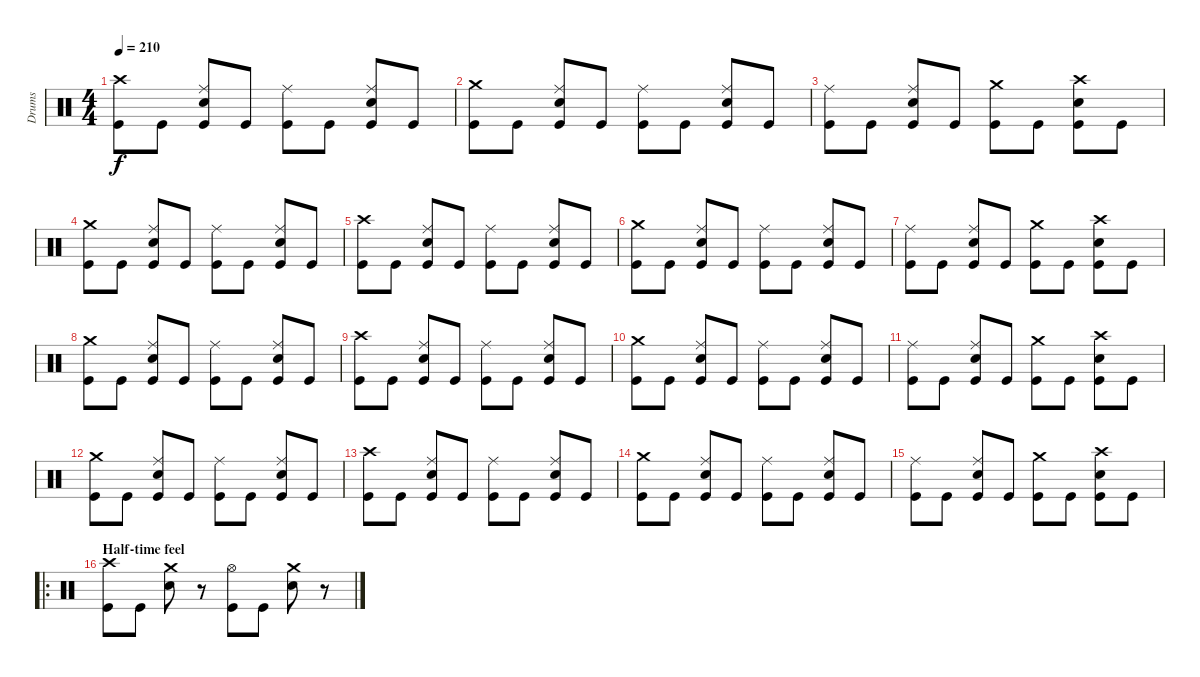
\track ("Drums" "Drums") {instrument percussion}
\staff {score}
\articulation defaults
\ts (4 4)
\tempo 210
\clef neutral
\ks c
("Crash high (hit)" "Kick (hit)").8{dy f} "Kick (hit)".8 ("Ride (middle)" "Electric Snare (hit)" "Kick (hit)").8 "Kick (hit)".8 ("Ride (middle)" "Kick (hit)").8 "Kick (hit)".8 ("Ride (middle)" "Electric Snare (hit)" "Kick (hit)").8 "Kick (hit)".8 |
("Crash medium (hit)" "Kick (hit)").8 "Kick (hit)".8 ("Ride (middle)" "Electric Snare (hit)" "Kick (hit)").8 "Kick (hit)".8 ("Ride (middle)" "Kick (hit)").8 "Kick (hit)".8 ("Ride (middle)" "Electric Snare (hit)" "Kick (hit)").8 "Kick (hit)".8 |
("Ride (middle)" "Kick (hit)").8 "Kick (hit)".8 ("Ride (middle)" "Electric Snare (hit)" "Kick (hit)").8 "Kick (hit)".8 ("Crash medium (hit)" "Kick (hit)").8 "Kick (hit)".8 ("Crash high (hit)" "Electric Snare (hit)" "Kick (hit)").8 "Kick (hit)".8 |
("Crash medium (hit)" "Kick (hit)").8 "Kick (hit)".8 ("Ride (middle)" "Electric Snare (hit)" "Kick (hit)").8 "Kick (hit)".8 ("Ride (middle)" "Kick (hit)").8 "Kick (hit)".8 ("Ride (middle)" "Electric Snare (hit)" "Kick (hit)").8 "Kick (hit)".8 |
("Crash high (hit)" "Kick (hit)").8 "Kick (hit)".8 ("Ride (middle)" "Electric Snare (hit)" "Kick (hit)").8 "Kick (hit)".8 ("Ride (middle)" "Kick (hit)").8 "Kick (hit)".8 ("Ride (middle)" "Electric Snare (hit)" "Kick (hit)").8 "Kick (hit)".8 |
("Crash medium (hit)" "Kick (hit)").8 "Kick (hit)".8 ("Ride (middle)" "Electric Snare (hit)" "Kick (hit)").8 "Kick (hit)".8 ("Ride (middle)" "Kick (hit)").8 "Kick (hit)".8 ("Ride (middle)" "Electric Snare (hit)" "Kick (hit)").8 "Kick (hit)".8 |
("Ride (middle)" "Kick (hit)").8 "Kick (hit)".8 ("Ride (middle)" "Electric Snare (hit)" "Kick (hit)").8 "Kick (hit)".8 ("Crash medium (hit)" "Kick (hit)").8 "Kick (hit)".8 ("Crash high (hit)" "Electric Snare (hit)" "Kick (hit)").8 "Kick (hit)".8 |
("Crash medium (hit)" "Kick (hit)").8 "Kick (hit)".8 ("Ride (middle)" "Electric Snare (hit)" "Kick (hit)").8 "Kick (hit)".8 ("Ride (middle)" "Kick (hit)").8 "Kick (hit)".8 ("Ride (middle)" "Electric Snare (hit)" "Kick (hit)").8 "Kick (hit)".8 |
("Crash high (hit)" "Kick (hit)").8 "Kick (hit)".8 ("Ride (middle)" "Electric Snare (hit)" "Kick (hit)").8 "Kick (hit)".8 ("Ride (middle)" "Kick (hit)").8 "Kick (hit)".8 ("Ride (middle)" "Electric Snare (hit)" "Kick (hit)").8 "Kick (hit)".8 |
("Crash medium (hit)" "Kick (hit)").8 "Kick (hit)".8 ("Ride (middle)" "Electric Snare (hit)" "Kick (hit)").8 "Kick (hit)".8 ("Ride (middle)" "Kick (hit)").8 "Kick (hit)".8 ("Ride (middle)" "Electric Snare (hit)" "Kick (hit)").8 "Kick (hit)".8 |
("Ride (middle)" "Kick (hit)").8 "Kick (hit)".8 ("Ride (middle)" "Electric Snare (hit)" "Kick (hit)").8 "Kick (hit)".8 ("Crash medium (hit)" "Kick (hit)").8 "Kick (hit)".8 ("Crash high (hit)" "Electric Snare (hit)" "Kick (hit)").8 "Kick (hit)".8 |
("Crash medium (hit)" "Kick (hit)").8 "Kick (hit)".8 ("Ride (middle)" "Electric Snare (hit)" "Kick (hit)").8 "Kick (hit)".8 ("Ride (middle)" "Kick (hit)").8 "Kick (hit)".8 ("Ride (middle)" "Electric Snare (hit)" "Kick (hit)").8 "Kick (hit)".8 |
("Crash high (hit)" "Kick (hit)").8 "Kick (hit)".8 ("Ride (middle)" "Electric Snare (hit)" "Kick (hit)").8 "Kick (hit)".8 ("Ride (middle)" "Kick (hit)").8 "Kick (hit)".8 ("Ride (middle)" "Electric Snare (hit)" "Kick (hit)").8 "Kick (hit)".8 |
("Crash medium (hit)" "Kick (hit)").8 "Kick (hit)".8 ("Ride (middle)" "Electric Snare (hit)" "Kick (hit)").8 "Kick (hit)".8 ("Ride (middle)" "Kick (hit)").8 "Kick (hit)".8 ("Ride (middle)" "Electric Snare (hit)" "Kick (hit)").8 "Kick (hit)".8 |
("Ride (middle)" "Kick (hit)").8 "Kick (hit)".8 ("Ride (middle)" "Electric Snare (hit)" "Kick (hit)").8 "Kick (hit)".8 ("Crash medium (hit)" "Kick (hit)").8 "Kick (hit)".8 ("Crash high (hit)" "Electric Snare (hit)" "Kick (hit)").8 "Kick (hit)".8 |
\ro
\section ("" "Half-time feel")
("Crash high (hit)" "Kick (hit)").8 "Kick (hit)".8 ("Crash medium (hit)" "Electric Snare (hit)").8 r.8 ("Hi-Hat (open)" "Kick (hit)").8 "Kick (hit)".8 ("Crash medium (hit)" "Electric Snare (hit)").8 r.8
